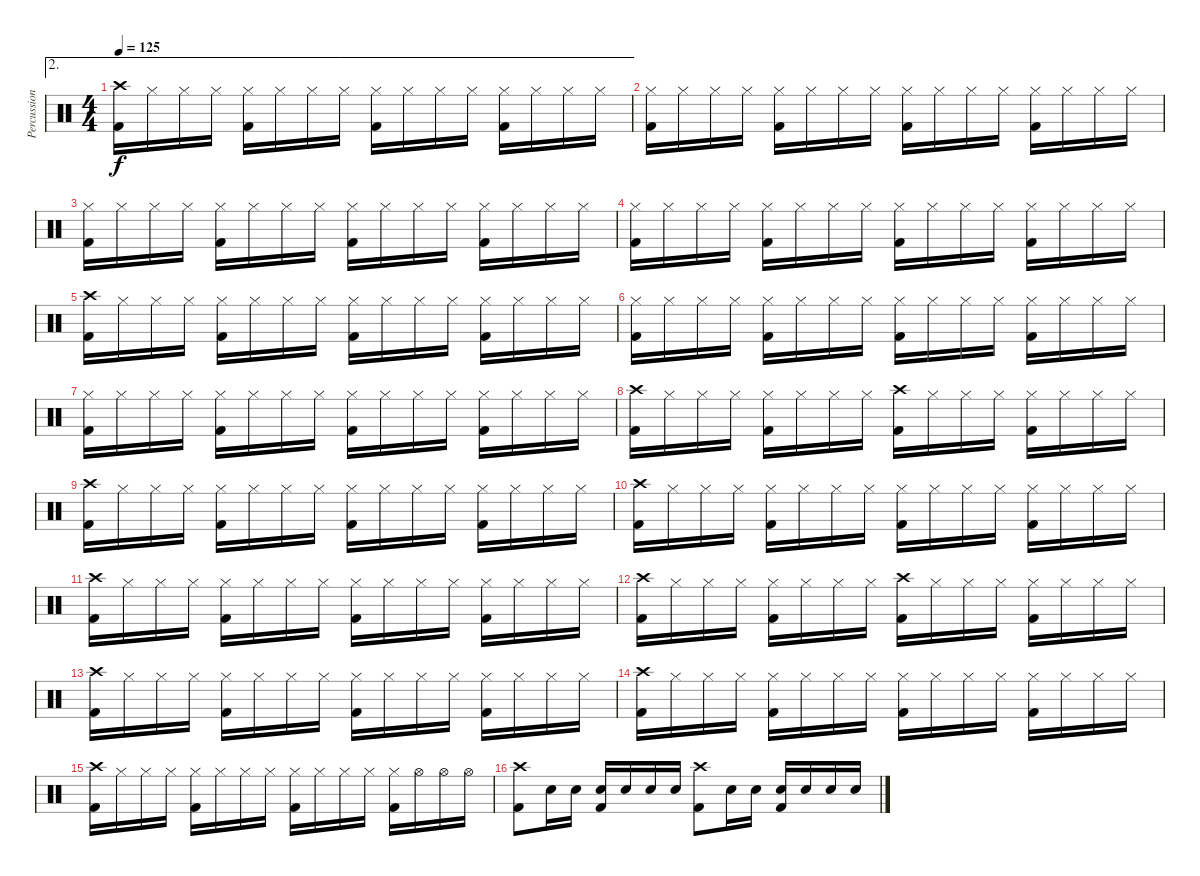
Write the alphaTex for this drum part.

\track ("Percussion" "Percussion") {instrument percussion}
\staff {score}
\articulation defaults
\ae 2
\ts (4 4)
\tempo 125
\clef neutral
\ks c
("Crash high (hit)" "Kick (hit) 2").16{dy f} "Hi-Hat (closed)".16 "Hi-Hat (closed)".16 "Hi-Hat (closed)".16 ("Hi-Hat (closed)" "Kick (hit) 2").16 "Hi-Hat (closed)".16 "Hi-Hat (closed)".16 "Hi-Hat (closed)".16 ("Hi-Hat (closed)" "Kick (hit) 2").16 "Hi-Hat (closed)".16 "Hi-Hat (closed)".16 "Hi-Hat (closed)".16 ("Hi-Hat (closed)" "Kick (hit) 2").16 "Hi-Hat (closed)".16 "Hi-Hat (closed)".16 "Hi-Hat (closed)".16 |
("Hi-Hat (closed)" "Kick (hit) 2").16 "Hi-Hat (closed)".16 "Hi-Hat (closed)".16 "Hi-Hat (closed)".16 ("Hi-Hat (closed)" "Kick (hit) 2").16 "Hi-Hat (closed)".16 "Hi-Hat (closed)".16 "Hi-Hat (closed)".16 ("Hi-Hat (closed)" "Kick (hit) 2").16 "Hi-Hat (closed)".16 "Hi-Hat (closed)".16 "Hi-Hat (closed)".16 ("Hi-Hat (closed)" "Kick (hit) 2").16 "Hi-Hat (closed)".16 "Hi-Hat (closed)".16 "Hi-Hat (closed)".16 |
("Hi-Hat (closed)" "Kick (hit) 2").16 "Hi-Hat (closed)".16 "Hi-Hat (closed)".16 "Hi-Hat (closed)".16 ("Hi-Hat (closed)" "Kick (hit) 2").16 "Hi-Hat (closed)".16 "Hi-Hat (closed)".16 "Hi-Hat (closed)".16 ("Hi-Hat (closed)" "Kick (hit) 2").16 "Hi-Hat (closed)".16 "Hi-Hat (closed)".16 "Hi-Hat (closed)".16 ("Hi-Hat (closed)" "Kick (hit) 2").16 "Hi-Hat (closed)".16 "Hi-Hat (closed)".16 "Hi-Hat (closed)".16 |
("Hi-Hat (closed)" "Kick (hit) 2").16 "Hi-Hat (closed)".16 "Hi-Hat (closed)".16 "Hi-Hat (closed)".16 ("Hi-Hat (closed)" "Kick (hit) 2").16 "Hi-Hat (closed)".16 "Hi-Hat (closed)".16 "Hi-Hat (closed)".16 ("Hi-Hat (closed)" "Kick (hit) 2").16 "Hi-Hat (closed)".16 "Hi-Hat (closed)".16 "Hi-Hat (closed)".16 ("Hi-Hat (closed)" "Kick (hit) 2").16 "Hi-Hat (closed)".16 "Hi-Hat (closed)".16 "Hi-Hat (closed)".16 |
("Crash high (hit)" "Kick (hit) 2").16 "Hi-Hat (closed)".16 "Hi-Hat (closed)".16 "Hi-Hat (closed)".16 ("Hi-Hat (closed)" "Kick (hit) 2").16 "Hi-Hat (closed)".16 "Hi-Hat (closed)".16 "Hi-Hat (closed)".16 ("Hi-Hat (closed)" "Kick (hit) 2").16 "Hi-Hat (closed)".16 "Hi-Hat (closed)".16 "Hi-Hat (closed)".16 ("Hi-Hat (closed)" "Kick (hit) 2").16 "Hi-Hat (closed)".16 "Hi-Hat (closed)".16 "Hi-Hat (closed)".16 |
("Hi-Hat (closed)" "Kick (hit) 2").16 "Hi-Hat (closed)".16 "Hi-Hat (closed)".16 "Hi-Hat (closed)".16 ("Hi-Hat (closed)" "Kick (hit) 2").16 "Hi-Hat (closed)".16 "Hi-Hat (closed)".16 "Hi-Hat (closed)".16 ("Hi-Hat (closed)" "Kick (hit) 2").16 "Hi-Hat (closed)".16 "Hi-Hat (closed)".16 "Hi-Hat (closed)".16 ("Hi-Hat (closed)" "Kick (hit) 2").16 "Hi-Hat (closed)".16 "Hi-Hat (closed)".16 "Hi-Hat (closed)".16 |
("Hi-Hat (closed)" "Kick (hit) 2").16 "Hi-Hat (closed)".16 "Hi-Hat (closed)".16 "Hi-Hat (closed)".16 ("Hi-Hat (closed)" "Kick (hit) 2").16 "Hi-Hat (closed)".16 "Hi-Hat (closed)".16 "Hi-Hat (closed)".16 ("Hi-Hat (closed)" "Kick (hit) 2").16 "Hi-Hat (closed)".16 "Hi-Hat (closed)".16 "Hi-Hat (closed)".16 ("Hi-Hat (closed)" "Kick (hit) 2").16 "Hi-Hat (closed)".16 "Hi-Hat (closed)".16 "Hi-Hat (closed)".16 |
("Crash high (hit)" "Kick (hit) 2").16 "Hi-Hat (closed)".16 "Hi-Hat (closed)".16 "Hi-Hat (closed)".16 ("Hi-Hat (closed)" "Kick (hit) 2").16 "Hi-Hat (closed)".16 "Hi-Hat (closed)".16 "Hi-Hat (closed)".16 ("Crash high (hit)" "Kick (hit) 2").16 "Hi-Hat (closed)".16 "Hi-Hat (closed)".16 "Hi-Hat (closed)".16 ("Hi-Hat (closed)" "Kick (hit) 2").16 "Hi-Hat (closed)".16 "Hi-Hat (closed)".16 "Hi-Hat (closed)".16 |
("Crash high (hit)" "Kick (hit) 2").16 "Hi-Hat (closed)".16 "Hi-Hat (closed)".16 "Hi-Hat (closed)".16 ("Hi-Hat (closed)" "Kick (hit) 2").16 "Hi-Hat (closed)".16 "Hi-Hat (closed)".16 "Hi-Hat (closed)".16 ("Hi-Hat (closed)" "Kick (hit) 2").16 "Hi-Hat (closed)".16 "Hi-Hat (closed)".16 "Hi-Hat (closed)".16 ("Hi-Hat (closed)" "Kick (hit) 2").16 "Hi-Hat (closed)".16 "Hi-Hat (closed)".16 "Hi-Hat (closed)".16 |
("Crash high (hit)" "Kick (hit) 2").16 "Hi-Hat (closed)".16 "Hi-Hat (closed)".16 "Hi-Hat (closed)".16 ("Hi-Hat (closed)" "Kick (hit) 2").16 "Hi-Hat (closed)".16 "Hi-Hat (closed)".16 "Hi-Hat (closed)".16 ("Hi-Hat (closed)" "Kick (hit) 2").16 "Hi-Hat (closed)".16 "Hi-Hat (closed)".16 "Hi-Hat (closed)".16 ("Hi-Hat (closed)" "Kick (hit) 2").16 "Hi-Hat (closed)".16 "Hi-Hat (closed)".16 "Hi-Hat (closed)".16 |
("Crash high (hit)" "Kick (hit) 2").16 "Hi-Hat (closed)".16 "Hi-Hat (closed)".16 "Hi-Hat (closed)".16 ("Hi-Hat (closed)" "Kick (hit) 2").16 "Hi-Hat (closed)".16 "Hi-Hat (closed)".16 "Hi-Hat (closed)".16 ("Hi-Hat (closed)" "Kick (hit) 2").16 "Hi-Hat (closed)".16 "Hi-Hat (closed)".16 "Hi-Hat (closed)".16 ("Hi-Hat (closed)" "Kick (hit) 2").16 "Hi-Hat (closed)".16 "Hi-Hat (closed)".16 "Hi-Hat (closed)".16 |
("Crash high (hit)" "Kick (hit) 2").16 "Hi-Hat (closed)".16 "Hi-Hat (closed)".16 "Hi-Hat (closed)".16 ("Hi-Hat (closed)" "Kick (hit) 2").16 "Hi-Hat (closed)".16 "Hi-Hat (closed)".16 "Hi-Hat (closed)".16 ("Crash high (hit)" "Kick (hit) 2").16 "Hi-Hat (closed)".16 "Hi-Hat (closed)".16 "Hi-Hat (closed)".16 ("Hi-Hat (closed)" "Kick (hit) 2").16 "Hi-Hat (closed)".16 "Hi-Hat (closed)".16 "Hi-Hat (closed)".16 |
("Crash high (hit)" "Kick (hit) 2").16 "Hi-Hat (closed)".16 "Hi-Hat (closed)".16 "Hi-Hat (closed)".16 ("Hi-Hat (closed)" "Kick (hit) 2").16 "Hi-Hat (closed)".16 "Hi-Hat (closed)".16 "Hi-Hat (closed)".16 ("Hi-Hat (closed)" "Kick (hit) 2").16 "Hi-Hat (closed)".16 "Hi-Hat (closed)".16 "Hi-Hat (closed)".16 ("Hi-Hat (closed)" "Kick (hit) 2").16 "Hi-Hat (closed)".16 "Hi-Hat (closed)".16 "Hi-Hat (closed)".16 |
("Crash high (hit)" "Kick (hit) 2").16 "Hi-Hat (closed)".16 "Hi-Hat (closed)".16 "Hi-Hat (closed)".16 ("Hi-Hat (closed)" "Kick (hit) 2").16 "Hi-Hat (closed)".16 "Hi-Hat (closed)".16 "Hi-Hat (closed)".16 ("Hi-Hat (closed)" "Kick (hit) 2").16 "Hi-Hat (closed)".16 "Hi-Hat (closed)".16 "Hi-Hat (closed)".16 ("Hi-Hat (closed)" "Kick (hit) 2").16 "Hi-Hat (closed)".16 "Hi-Hat (closed)".16 "Hi-Hat (closed)".16 |
("Crash high (hit)" "Kick (hit) 2").16 "Hi-Hat (closed)".16 "Hi-Hat (closed)".16 "Hi-Hat (closed)".16 ("Hi-Hat (closed)" "Kick (hit) 2").16 "Hi-Hat (closed)".16 "Hi-Hat (closed)".16 "Hi-Hat (closed)".16 ("Hi-Hat (closed)" "Kick (hit) 2").16 "Hi-Hat (closed)".16 "Hi-Hat (closed)".16 "Hi-Hat (closed)".16 ("Hi-Hat (closed)" "Kick (hit) 2").16 "Hi-Hat (open)".16 "Hi-Hat (open)".16 "Hi-Hat (open)".16 |
("Crash high (hit)" "Kick (hit) 2").8 "Electric Snare (hit)".16 "Electric Snare (hit)".16 ("Electric Snare (hit)" "Kick (hit) 2").16 "Electric Snare (hit)".16 "Electric Snare (hit)".16 "Electric Snare (hit)".16 ("Crash high (hit)" "Kick (hit) 2").8 "Electric Snare (hit)".16 "Electric Snare (hit)".16 ("Electric Snare (hit)" "Kick (hit) 2").16 "Electric Snare (hit)".16 "Electric Snare (hit)".16 "Electric Snare (hit)".16
